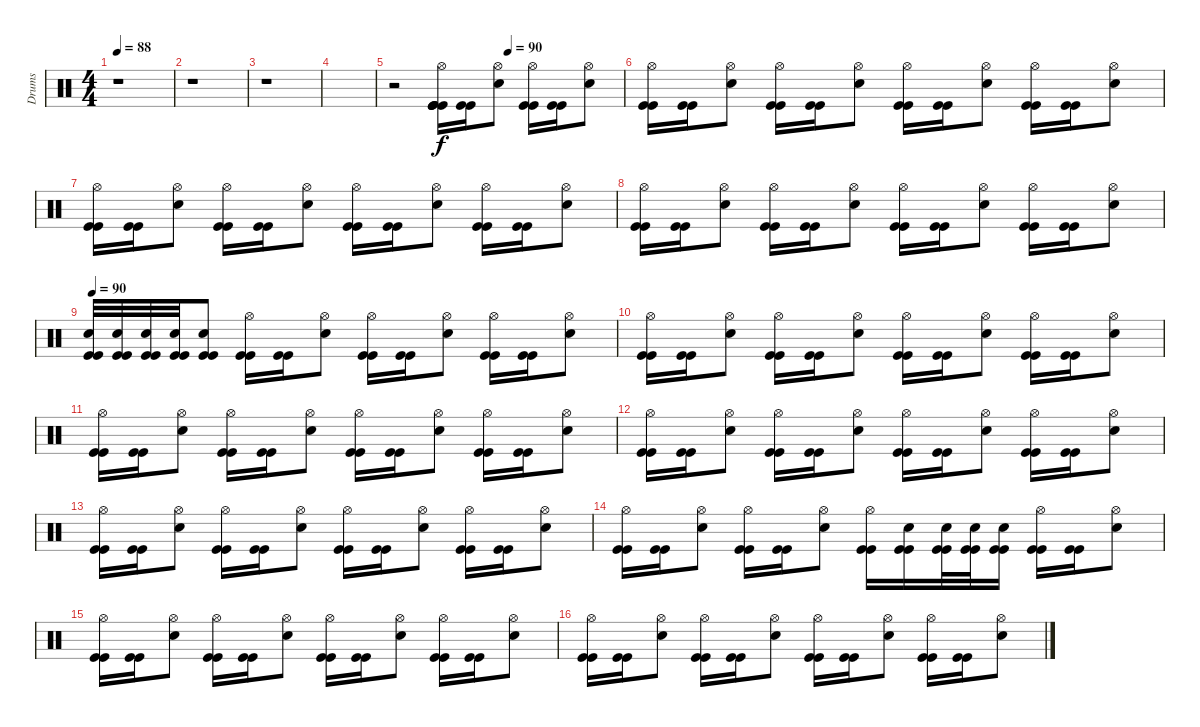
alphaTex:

\track ("Drums" "Drums") {instrument percussion}
\staff {score}
\articulation defaults
\ts (4 4)
\tempo 88
\clef neutral
\ks c
r.1{dy f} |
r.1 |
r.1 |
|
\tempo (90 0.5)
r.2 ("Hi-Hat (open)" "Kick (hit)" "Kick (hit)" "Kick (hit)" "Kick (hit)").16 ("Kick (hit)" "Kick (hit)").16 ("Hi-Hat (open)" "Electric Snare (hit)").8 ("Hi-Hat (open)" "Kick (hit)" "Kick (hit)").16 ("Kick (hit)" "Kick (hit)").16 ("Hi-Hat (open)" "Electric Snare (hit)").8 |
("Hi-Hat (open)" "Kick (hit)" "Kick (hit)").16 ("Kick (hit)" "Kick (hit)").16 ("Hi-Hat (open)" "Electric Snare (hit)").8 ("Hi-Hat (open)" "Kick (hit)" "Kick (hit)").16 ("Kick (hit)" "Kick (hit)").16 ("Hi-Hat (open)" "Electric Snare (hit)").8 ("Hi-Hat (open)" "Kick (hit)" "Kick (hit)").16 ("Kick (hit)" "Kick (hit)").16 ("Hi-Hat (open)" "Electric Snare (hit)").8 ("Hi-Hat (open)" "Kick (hit)" "Kick (hit)").16 ("Kick (hit)" "Kick (hit)").16 ("Hi-Hat (open)" "Electric Snare (hit)").8 |
("Hi-Hat (open)" "Kick (hit)" "Kick (hit)").16 ("Kick (hit)" "Kick (hit)").16 ("Hi-Hat (open)" "Electric Snare (hit)").8 ("Hi-Hat (open)" "Kick (hit)" "Kick (hit)").16 ("Kick (hit)" "Kick (hit)").16 ("Hi-Hat (open)" "Electric Snare (hit)").8 ("Hi-Hat (open)" "Kick (hit)" "Kick (hit)").16 ("Kick (hit)" "Kick (hit)").16 ("Hi-Hat (open)" "Electric Snare (hit)").8 ("Hi-Hat (open)" "Kick (hit)" "Kick (hit)").16 ("Kick (hit)" "Kick (hit)").16 ("Hi-Hat (open)" "Electric Snare (hit)").8 |
("Hi-Hat (open)" "Kick (hit)" "Kick (hit)").16 ("Kick (hit)" "Kick (hit)").16 ("Hi-Hat (open)" "Electric Snare (hit)").8 ("Hi-Hat (open)" "Kick (hit)" "Kick (hit)").16 ("Kick (hit)" "Kick (hit)").16 ("Hi-Hat (open)" "Electric Snare (hit)").8 ("Hi-Hat (open)" "Kick (hit)" "Kick (hit)").16 ("Kick (hit)" "Kick (hit)").16 ("Hi-Hat (open)" "Electric Snare (hit)").8 ("Hi-Hat (open)" "Kick (hit)" "Kick (hit)").16 ("Kick (hit)" "Kick (hit)").16 ("Hi-Hat (open)" "Electric Snare (hit)").8 |
\tempo 90
("Kick (hit)" "Kick (hit)" "Electric Snare (hit)").32 ("Kick (hit)" "Kick (hit)" "Electric Snare (hit)").32 ("Kick (hit)" "Kick (hit)" "Electric Snare (hit)").32 ("Kick (hit)" "Kick (hit)" "Electric Snare (hit)").32 ("Kick (hit)" "Kick (hit)" "Electric Snare (hit)").8 ("Hi-Hat (open)" "Kick (hit)" "Kick (hit)").16 ("Kick (hit)" "Kick (hit)").16 ("Hi-Hat (open)" "Electric Snare (hit)").8 ("Hi-Hat (open)" "Kick (hit)" "Kick (hit)").16 ("Kick (hit)" "Kick (hit)").16 ("Hi-Hat (open)" "Electric Snare (hit)").8 ("Hi-Hat (open)" "Kick (hit)" "Kick (hit)").16 ("Kick (hit)" "Kick (hit)").16 ("Hi-Hat (open)" "Electric Snare (hit)").8 |
("Hi-Hat (open)" "Kick (hit)" "Kick (hit)").16 ("Kick (hit)" "Kick (hit)").16 ("Hi-Hat (open)" "Electric Snare (hit)").8 ("Hi-Hat (open)" "Kick (hit)" "Kick (hit)").16 ("Kick (hit)" "Kick (hit)").16 ("Hi-Hat (open)" "Electric Snare (hit)").8 ("Hi-Hat (open)" "Kick (hit)" "Kick (hit)").16 ("Kick (hit)" "Kick (hit)").16 ("Hi-Hat (open)" "Electric Snare (hit)").8 ("Hi-Hat (open)" "Kick (hit)" "Kick (hit)").16 ("Kick (hit)" "Kick (hit)").16 ("Hi-Hat (open)" "Electric Snare (hit)").8 |
("Hi-Hat (open)" "Kick (hit)" "Kick (hit)").16 ("Kick (hit)" "Kick (hit)").16 ("Hi-Hat (open)" "Electric Snare (hit)").8 ("Hi-Hat (open)" "Kick (hit)" "Kick (hit)").16 ("Kick (hit)" "Kick (hit)").16 ("Hi-Hat (open)" "Electric Snare (hit)").8 ("Hi-Hat (open)" "Kick (hit)" "Kick (hit)").16 ("Kick (hit)" "Kick (hit)").16 ("Hi-Hat (open)" "Electric Snare (hit)").8 ("Hi-Hat (open)" "Kick (hit)" "Kick (hit)").16 ("Kick (hit)" "Kick (hit)").16 ("Hi-Hat (open)" "Electric Snare (hit)").8 |
("Hi-Hat (open)" "Kick (hit)" "Kick (hit)").16 ("Kick (hit)" "Kick (hit)").16 ("Hi-Hat (open)" "Electric Snare (hit)").8 ("Hi-Hat (open)" "Kick (hit)" "Kick (hit)").16 ("Kick (hit)" "Kick (hit)").16 ("Hi-Hat (open)" "Electric Snare (hit)").8 ("Hi-Hat (open)" "Kick (hit)" "Kick (hit)").16 ("Kick (hit)" "Kick (hit)").16 ("Hi-Hat (open)" "Electric Snare (hit)").8 ("Hi-Hat (open)" "Kick (hit)" "Kick (hit)").16 ("Kick (hit)" "Kick (hit)").16 ("Hi-Hat (open)" "Electric Snare (hit)").8 |
("Hi-Hat (open)" "Kick (hit)" "Kick (hit)").16 ("Kick (hit)" "Kick (hit)").16 ("Hi-Hat (open)" "Electric Snare (hit)").8 ("Hi-Hat (open)" "Kick (hit)" "Kick (hit)").16 ("Kick (hit)" "Kick (hit)").16 ("Hi-Hat (open)" "Electric Snare (hit)").8 ("Hi-Hat (open)" "Kick (hit)" "Kick (hit)").16 ("Kick (hit)" "Kick (hit)").16 ("Hi-Hat (open)" "Electric Snare (hit)").8 ("Hi-Hat (open)" "Kick (hit)" "Kick (hit)").16 ("Kick (hit)" "Kick (hit)").16 ("Hi-Hat (open)" "Electric Snare (hit)").8 |
("Hi-Hat (open)" "Kick (hit)" "Kick (hit)").16 ("Kick (hit)" "Kick (hit)").16 ("Hi-Hat (open)" "Electric Snare (hit)").8 ("Hi-Hat (open)" "Kick (hit)" "Kick (hit)").16 ("Kick (hit)" "Kick (hit)").16 ("Hi-Hat (open)" "Electric Snare (hit)").8 ("Hi-Hat (open)" "Kick (hit)" "Kick (hit)").16 ("Kick (hit)" "Kick (hit)" "Electric Snare (hit)").16 ("Kick (hit)" "Kick (hit)" "Electric Snare (hit)").32 ("Kick (hit)" "Kick (hit)" "Electric Snare (hit)").32 ("Kick (hit)" "Kick (hit)" "Electric Snare (hit)").16 ("Hi-Hat (open)" "Kick (hit)" "Kick (hit)").16 ("Kick (hit)" "Kick (hit)").16 ("Hi-Hat (open)" "Electric Snare (hit)").8 |
("Hi-Hat (open)" "Kick (hit)" "Kick (hit)").16 ("Kick (hit)" "Kick (hit)").16 ("Hi-Hat (open)" "Electric Snare (hit)").8 ("Hi-Hat (open)" "Kick (hit)" "Kick (hit)").16 ("Kick (hit)" "Kick (hit)").16 ("Hi-Hat (open)" "Electric Snare (hit)").8 ("Hi-Hat (open)" "Kick (hit)" "Kick (hit)").16 ("Kick (hit)" "Kick (hit)").16 ("Hi-Hat (open)" "Electric Snare (hit)").8 ("Hi-Hat (open)" "Kick (hit)" "Kick (hit)").16 ("Kick (hit)" "Kick (hit)").16 ("Hi-Hat (open)" "Electric Snare (hit)").8 |
("Hi-Hat (open)" "Kick (hit)" "Kick (hit)").16 ("Kick (hit)" "Kick (hit)").16 ("Hi-Hat (open)" "Electric Snare (hit)").8 ("Hi-Hat (open)" "Kick (hit)" "Kick (hit)").16 ("Kick (hit)" "Kick (hit)").16 ("Hi-Hat (open)" "Electric Snare (hit)").8 ("Hi-Hat (open)" "Kick (hit)" "Kick (hit)").16 ("Kick (hit)" "Kick (hit)").16 ("Hi-Hat (open)" "Electric Snare (hit)").8 ("Hi-Hat (open)" "Kick (hit)" "Kick (hit)").16 ("Kick (hit)" "Kick (hit)").16 ("Hi-Hat (open)" "Electric Snare (hit)").8
